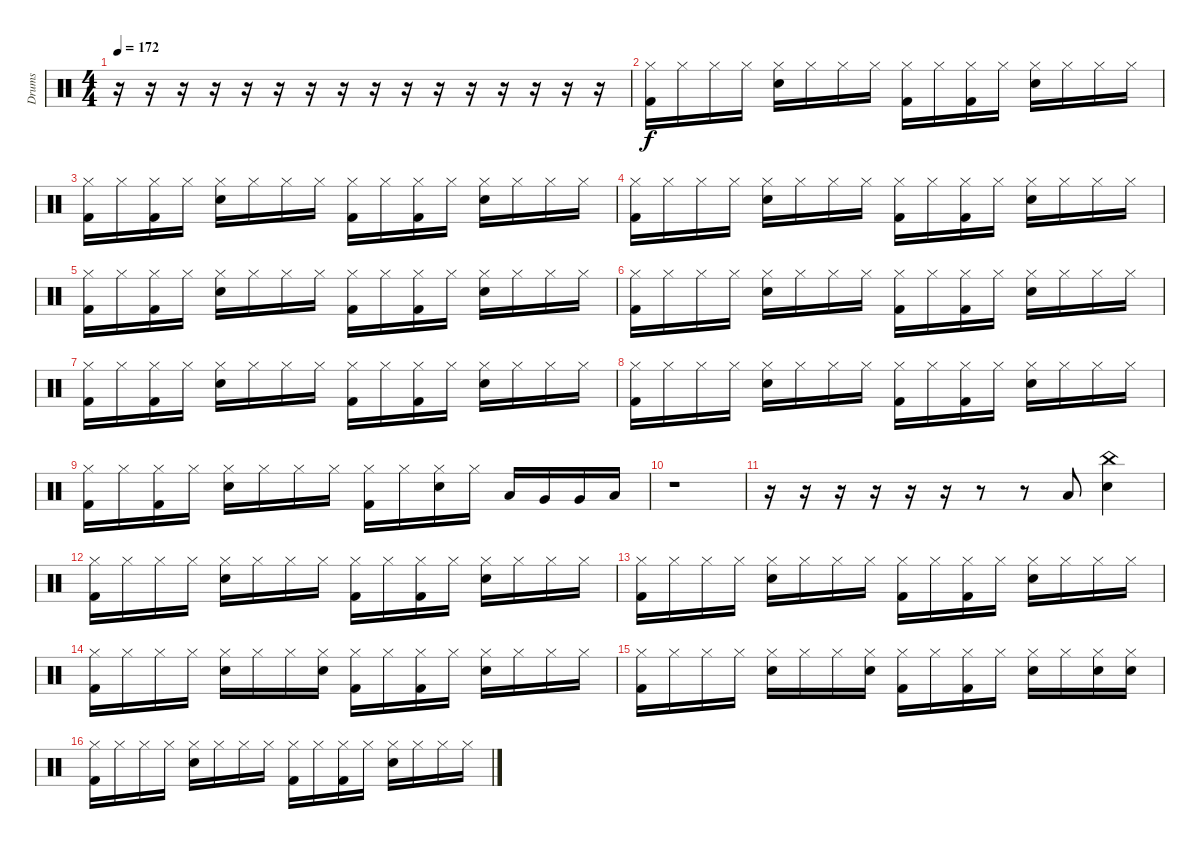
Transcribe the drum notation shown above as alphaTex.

\track ("Drums" "Drums") {instrument percussion}
\staff {score}
\articulation defaults
\ts (4 4)
\tempo 172
\clef neutral
\ks c
r.16{dy f} r.16 r.16 r.16 r.16 r.16 r.16 r.16 r.16 r.16 r.16 r.16 r.16 r.16 r.16 r.16 |
("Hi-Hat (closed)" "Kick (hit) 2").16 "Hi-Hat (closed)".16 "Hi-Hat (closed)".16 "Hi-Hat (closed)".16 ("Hi-Hat (closed)" "Electric Snare (hit)").16 "Hi-Hat (closed)".16 "Hi-Hat (closed)".16 "Hi-Hat (closed)".16 ("Hi-Hat (closed)" "Kick (hit) 2").16 "Hi-Hat (closed)".16 ("Hi-Hat (closed)" "Kick (hit) 2").16 "Hi-Hat (closed)".16 ("Hi-Hat (closed)" "Electric Snare (hit)").16 "Hi-Hat (closed)".16 "Hi-Hat (closed)".16 "Hi-Hat (closed)".16 |
("Hi-Hat (closed)" "Kick (hit) 2").16 "Hi-Hat (closed)".16 ("Hi-Hat (closed)" "Kick (hit) 2").16 "Hi-Hat (closed)".16 ("Hi-Hat (closed)" "Electric Snare (hit)").16 "Hi-Hat (closed)".16 "Hi-Hat (closed)".16 "Hi-Hat (closed)".16 ("Hi-Hat (closed)" "Kick (hit) 2").16 "Hi-Hat (closed)".16 ("Hi-Hat (closed)" "Kick (hit) 2").16 "Hi-Hat (closed)".16 ("Hi-Hat (closed)" "Electric Snare (hit)").16 "Hi-Hat (closed)".16 "Hi-Hat (closed)".16 "Hi-Hat (closed)".16 |
("Hi-Hat (closed)" "Kick (hit) 2").16 "Hi-Hat (closed)".16 "Hi-Hat (closed)".16 "Hi-Hat (closed)".16 ("Hi-Hat (closed)" "Electric Snare (hit)").16 "Hi-Hat (closed)".16 "Hi-Hat (closed)".16 "Hi-Hat (closed)".16 ("Hi-Hat (closed)" "Kick (hit) 2").16 "Hi-Hat (closed)".16 ("Hi-Hat (closed)" "Kick (hit) 2").16 "Hi-Hat (closed)".16 ("Hi-Hat (closed)" "Electric Snare (hit)").16 "Hi-Hat (closed)".16 "Hi-Hat (closed)".16 "Hi-Hat (closed)".16 |
("Hi-Hat (closed)" "Kick (hit) 2").16 "Hi-Hat (closed)".16 ("Hi-Hat (closed)" "Kick (hit) 2").16 "Hi-Hat (closed)".16 ("Hi-Hat (closed)" "Electric Snare (hit)").16 "Hi-Hat (closed)".16 "Hi-Hat (closed)".16 "Hi-Hat (closed)".16 ("Hi-Hat (closed)" "Kick (hit) 2").16 "Hi-Hat (closed)".16 ("Hi-Hat (closed)" "Kick (hit) 2").16 "Hi-Hat (closed)".16 ("Hi-Hat (closed)" "Electric Snare (hit)").16 "Hi-Hat (closed)".16 "Hi-Hat (closed)".16 "Hi-Hat (closed)".16 |
("Hi-Hat (closed)" "Kick (hit) 2").16 "Hi-Hat (closed)".16 "Hi-Hat (closed)".16 "Hi-Hat (closed)".16 ("Hi-Hat (closed)" "Electric Snare (hit)").16 "Hi-Hat (closed)".16 "Hi-Hat (closed)".16 "Hi-Hat (closed)".16 ("Hi-Hat (closed)" "Kick (hit) 2").16 "Hi-Hat (closed)".16 ("Hi-Hat (closed)" "Kick (hit) 2").16 "Hi-Hat (closed)".16 ("Hi-Hat (closed)" "Electric Snare (hit)").16 "Hi-Hat (closed)".16 "Hi-Hat (closed)".16 "Hi-Hat (closed)".16 |
("Hi-Hat (closed)" "Kick (hit) 2").16 "Hi-Hat (closed)".16 ("Hi-Hat (closed)" "Kick (hit) 2").16 "Hi-Hat (closed)".16 ("Hi-Hat (closed)" "Electric Snare (hit)").16 "Hi-Hat (closed)".16 "Hi-Hat (closed)".16 "Hi-Hat (closed)".16 ("Hi-Hat (closed)" "Kick (hit) 2").16 "Hi-Hat (closed)".16 ("Hi-Hat (closed)" "Kick (hit) 2").16 "Hi-Hat (closed)".16 ("Hi-Hat (closed)" "Electric Snare (hit)").16 "Hi-Hat (closed)".16 "Hi-Hat (closed)".16 "Hi-Hat (closed)".16 |
("Hi-Hat (closed)" "Kick (hit) 2").16 "Hi-Hat (closed)".16 "Hi-Hat (closed)".16 "Hi-Hat (closed)".16 ("Hi-Hat (closed)" "Electric Snare (hit)").16 "Hi-Hat (closed)".16 "Hi-Hat (closed)".16 "Hi-Hat (closed)".16 ("Hi-Hat (closed)" "Kick (hit) 2").16 "Hi-Hat (closed)".16 ("Hi-Hat (closed)" "Kick (hit) 2").16 "Hi-Hat (closed)".16 ("Hi-Hat (closed)" "Electric Snare (hit)").16 "Hi-Hat (closed)".16 "Hi-Hat (closed)".16 "Hi-Hat (closed)".16 |
("Hi-Hat (closed)" "Kick (hit) 2").16 "Hi-Hat (closed)".16 ("Hi-Hat (closed)" "Kick (hit) 2").16 "Hi-Hat (closed)".16 ("Hi-Hat (closed)" "Electric Snare (hit)").16 "Hi-Hat (closed)".16 "Hi-Hat (closed)".16 "Hi-Hat (closed)".16 ("Hi-Hat (closed)" "Kick (hit) 2").16 "Hi-Hat (closed)".16 ("Hi-Hat (closed)" "Electric Snare (hit)").16 "Hi-Hat (closed)".16 "Low Tom (hit)".16 "Very Low Tom (hit)".16 "Very Low Tom (hit)".16 "Low Floor Tom (hit)".16 |
r.1 |
r.16 r.16 r.16 r.16 r.16 r.16 r.8 r.8 "Low Floor Tom (hit)".8 ("China (hit)" "Electric Snare (hit)").4 |
("Hi-Hat (closed)" "Kick (hit) 2").16 "Hi-Hat (closed)".16 "Hi-Hat (closed)".16 "Hi-Hat (closed)".16 ("Hi-Hat (closed)" "Electric Snare (hit)").16 "Hi-Hat (closed)".16 "Hi-Hat (closed)".16 "Hi-Hat (closed)".16 ("Hi-Hat (closed)" "Kick (hit) 2").16 "Hi-Hat (closed)".16 ("Hi-Hat (closed)" "Kick (hit) 2").16 "Hi-Hat (closed)".16 ("Hi-Hat (closed)" "Electric Snare (hit)").16 "Hi-Hat (closed)".16 "Hi-Hat (closed)".16 "Hi-Hat (closed)".16 |
("Hi-Hat (closed)" "Kick (hit) 2").16 "Hi-Hat (closed)".16 "Hi-Hat (closed)".16 "Hi-Hat (closed)".16 ("Hi-Hat (closed)" "Electric Snare (hit)").16 "Hi-Hat (closed)".16 "Hi-Hat (closed)".16 "Hi-Hat (closed)".16 ("Hi-Hat (closed)" "Kick (hit) 2").16 "Hi-Hat (closed)".16 ("Hi-Hat (closed)" "Kick (hit) 2").16 "Hi-Hat (closed)".16 ("Hi-Hat (closed)" "Electric Snare (hit)").16 "Hi-Hat (closed)".16 "Hi-Hat (closed)".16 "Hi-Hat (closed)".16 |
("Hi-Hat (closed)" "Kick (hit) 2").16 "Hi-Hat (closed)".16 "Hi-Hat (closed)".16 "Hi-Hat (closed)".16 ("Hi-Hat (closed)" "Electric Snare (hit)").16 "Hi-Hat (closed)".16 "Hi-Hat (closed)".16 ("Hi-Hat (closed)" "Electric Snare (hit)").16 ("Hi-Hat (closed)" "Kick (hit) 2").16 "Hi-Hat (closed)".16 ("Hi-Hat (closed)" "Kick (hit) 2").16 "Hi-Hat (closed)".16 ("Hi-Hat (closed)" "Electric Snare (hit)").16 "Hi-Hat (closed)".16 "Hi-Hat (closed)".16 "Hi-Hat (closed)".16 |
("Hi-Hat (closed)" "Kick (hit) 2").16 "Hi-Hat (closed)".16 "Hi-Hat (closed)".16 "Hi-Hat (closed)".16 ("Hi-Hat (closed)" "Electric Snare (hit)").16 "Hi-Hat (closed)".16 "Hi-Hat (closed)".16 ("Hi-Hat (closed)" "Electric Snare (hit)").16 ("Hi-Hat (closed)" "Kick (hit) 2").16 "Hi-Hat (closed)".16 ("Hi-Hat (closed)" "Kick (hit) 2").16 "Hi-Hat (closed)".16 ("Hi-Hat (closed)" "Electric Snare (hit)").16 "Hi-Hat (closed)".16 ("Hi-Hat (closed)" "Electric Snare (hit)").16 ("Hi-Hat (closed)" "Electric Snare (hit)").16 |
("Hi-Hat (closed)" "Kick (hit) 2").16 "Hi-Hat (closed)".16 "Hi-Hat (closed)".16 "Hi-Hat (closed)".16 ("Hi-Hat (closed)" "Electric Snare (hit)").16 "Hi-Hat (closed)".16 "Hi-Hat (closed)".16 "Hi-Hat (closed)".16 ("Hi-Hat (closed)" "Kick (hit) 2").16 "Hi-Hat (closed)".16 ("Hi-Hat (closed)" "Kick (hit) 2").16 "Hi-Hat (closed)".16 ("Hi-Hat (closed)" "Electric Snare (hit)").16 "Hi-Hat (closed)".16 "Hi-Hat (closed)".16 "Hi-Hat (closed)".16
